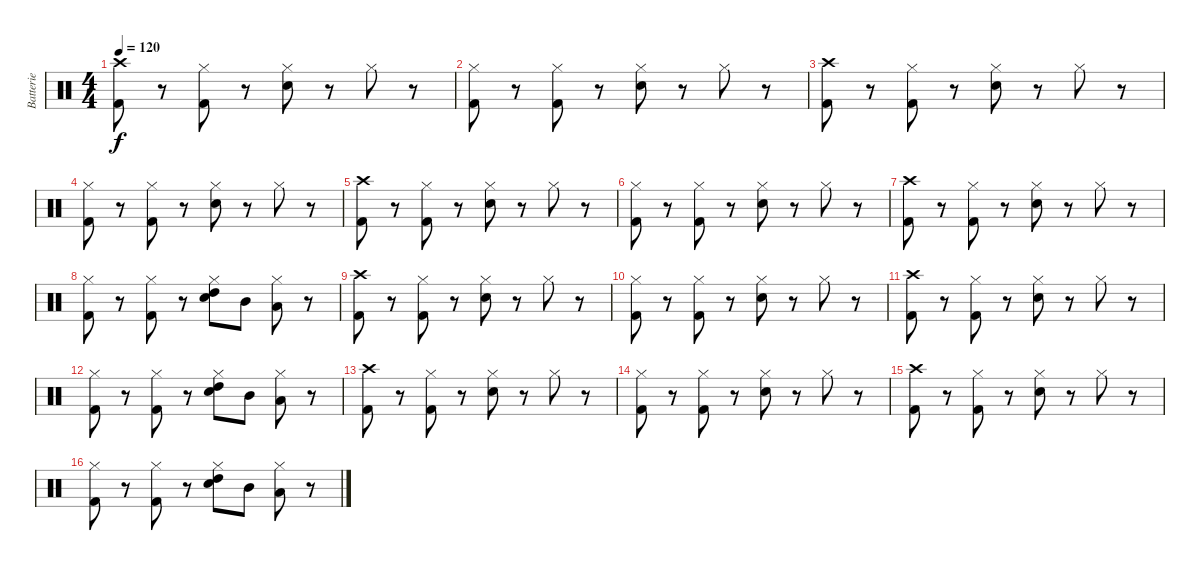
\track ("Batterie" "Batterie") {instrument percussion}
\staff {score}
\articulation defaults
\ts (4 4)
\tempo 120
\clef neutral
\ks c
("Crash high (hit)" "Kick (hit) 2").8{dy f} r.8 ("Hi-Hat (closed)" "Kick (hit) 2").8 r.8 ("Hi-Hat (closed)" "Electric Snare (hit)").8 r.8 "Hi-Hat (closed)".8 r.8 |
("Hi-Hat (closed)" "Kick (hit) 2").8 r.8 ("Hi-Hat (closed)" "Kick (hit) 2").8 r.8 ("Hi-Hat (closed)" "Electric Snare (hit)").8 r.8 "Hi-Hat (closed)".8 r.8 |
("Crash high (hit)" "Kick (hit) 2").8 r.8 ("Hi-Hat (closed)" "Kick (hit) 2").8 r.8 ("Hi-Hat (closed)" "Electric Snare (hit)").8 r.8 "Hi-Hat (closed)".8 r.8 |
("Hi-Hat (closed)" "Kick (hit) 2").8 r.8 ("Hi-Hat (closed)" "Kick (hit) 2").8 r.8 ("Hi-Hat (closed)" "Electric Snare (hit)").8 r.8 "Hi-Hat (closed)".8 r.8 |
("Crash high (hit)" "Kick (hit) 2").8 r.8 ("Hi-Hat (closed)" "Kick (hit) 2").8 r.8 ("Hi-Hat (closed)" "Electric Snare (hit)").8 r.8 "Hi-Hat (closed)".8 r.8 |
("Hi-Hat (closed)" "Kick (hit) 2").8 r.8 ("Hi-Hat (closed)" "Kick (hit) 2").8 r.8 ("Hi-Hat (closed)" "Electric Snare (hit)").8 r.8 "Hi-Hat (closed)".8 r.8 |
("Crash high (hit)" "Kick (hit) 2").8 r.8 ("Hi-Hat (closed)" "Kick (hit) 2").8 r.8 ("Hi-Hat (closed)" "Electric Snare (hit)").8 r.8 "Hi-Hat (closed)".8 r.8 |
("Hi-Hat (closed)" "Kick (hit) 2").8 r.8 ("Hi-Hat (closed)" "Kick (hit) 2").8 r.8 ("Hi-Hat (closed)" "Electric Snare (hit)" "High Tom (hit)").8 "Mid Tom (hit)".8 ("Hi-Hat (closed)" "Low Tom (hit)").8 r.8 |
("Crash high (hit)" "Kick (hit) 2").8 r.8 ("Hi-Hat (closed)" "Kick (hit) 2").8 r.8 ("Hi-Hat (closed)" "Electric Snare (hit)").8 r.8 "Hi-Hat (closed)".8 r.8 |
("Hi-Hat (closed)" "Kick (hit) 2").8 r.8 ("Hi-Hat (closed)" "Kick (hit) 2").8 r.8 ("Hi-Hat (closed)" "Electric Snare (hit)").8 r.8 "Hi-Hat (closed)".8 r.8 |
("Crash high (hit)" "Kick (hit) 2").8 r.8 ("Hi-Hat (closed)" "Kick (hit) 2").8 r.8 ("Hi-Hat (closed)" "Electric Snare (hit)").8 r.8 "Hi-Hat (closed)".8 r.8 |
("Hi-Hat (closed)" "Kick (hit) 2").8 r.8 ("Hi-Hat (closed)" "Kick (hit) 2").8 r.8 ("Hi-Hat (closed)" "Electric Snare (hit)" "High Tom (hit)").8 "Mid Tom (hit)".8 ("Hi-Hat (closed)" "Low Tom (hit)").8 r.8 |
("Crash high (hit)" "Kick (hit) 2").8 r.8 ("Hi-Hat (closed)" "Kick (hit) 2").8 r.8 ("Hi-Hat (closed)" "Electric Snare (hit)").8 r.8 "Hi-Hat (closed)".8 r.8 |
("Hi-Hat (closed)" "Kick (hit) 2").8 r.8 ("Hi-Hat (closed)" "Kick (hit) 2").8 r.8 ("Hi-Hat (closed)" "Electric Snare (hit)").8 r.8 "Hi-Hat (closed)".8 r.8 |
("Crash high (hit)" "Kick (hit) 2").8 r.8 ("Hi-Hat (closed)" "Kick (hit) 2").8 r.8 ("Hi-Hat (closed)" "Electric Snare (hit)").8 r.8 "Hi-Hat (closed)".8 r.8 |
("Hi-Hat (closed)" "Kick (hit) 2").8 r.8 ("Hi-Hat (closed)" "Kick (hit) 2").8 r.8 ("Hi-Hat (closed)" "Electric Snare (hit)" "High Tom (hit)").8 "Mid Tom (hit)".8 ("Hi-Hat (closed)" "Low Tom (hit)").8 r.8
